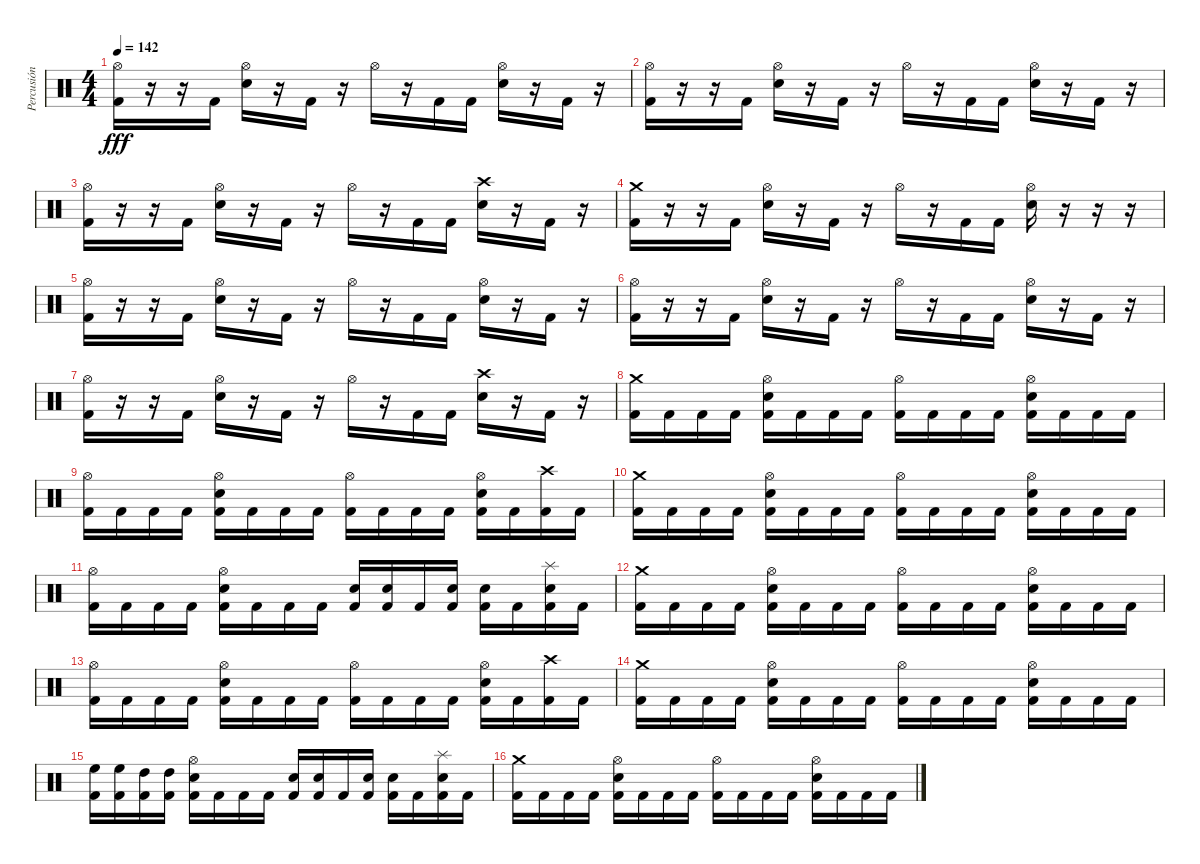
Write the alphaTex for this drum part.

\track ("Percusión" "Percusión") {instrument percussion}
\staff {score}
\articulation defaults
\ts (4 4)
\tempo 142
\clef neutral
\ks c
("Hi-Hat (open)" "Kick (hit) 2").16{dy fff} r.16 r.16 "Kick (hit) 2".16 ("Hi-Hat (open)" "Electric Snare (hit)").16 r.16 "Kick (hit) 2".16 r.16 "Hi-Hat (open)".16 r.16 "Kick (hit) 2".16 "Kick (hit) 2".16 ("Hi-Hat (open)" "Electric Snare (hit)").16 r.16 "Kick (hit) 2".16 r.16 |
("Hi-Hat (open)" "Kick (hit) 2").16 r.16 r.16 "Kick (hit) 2".16 ("Hi-Hat (open)" "Electric Snare (hit)").16 r.16 "Kick (hit) 2".16 r.16 "Hi-Hat (open)".16 r.16 "Kick (hit) 2".16 "Kick (hit) 2".16 ("Hi-Hat (open)" "Electric Snare (hit)").16 r.16 "Kick (hit) 2".16 r.16 |
("Hi-Hat (open)" "Kick (hit) 2").16 r.16 r.16 "Kick (hit) 2".16 ("Hi-Hat (open)" "Electric Snare (hit)").16 r.16 "Kick (hit) 2".16 r.16 "Hi-Hat (open)".16 r.16 "Kick (hit) 2".16 "Kick (hit) 2".16 ("Crash high (hit)" "Electric Snare (hit)").16 r.16 "Kick (hit) 2".16 r.16 |
("Crash medium (hit)" "Kick (hit) 2").16 r.16 r.16 "Kick (hit) 2".16 ("Hi-Hat (open)" "Electric Snare (hit)").16 r.16 "Kick (hit) 2".16 r.16 "Hi-Hat (open)".16 r.16 "Kick (hit) 2".16 "Kick (hit) 2".16 ("Hi-Hat (open)" "Electric Snare (hit)").16 r.16 r.16 r.16 |
("Hi-Hat (open)" "Kick (hit) 2").16 r.16 r.16 "Kick (hit) 2".16 ("Hi-Hat (open)" "Electric Snare (hit)").16 r.16 "Kick (hit) 2".16 r.16 "Hi-Hat (open)".16 r.16 "Kick (hit) 2".16 "Kick (hit) 2".16 ("Hi-Hat (open)" "Electric Snare (hit)").16 r.16 "Kick (hit) 2".16 r.16 |
("Hi-Hat (open)" "Kick (hit) 2").16 r.16 r.16 "Kick (hit) 2".16 ("Hi-Hat (open)" "Electric Snare (hit)").16 r.16 "Kick (hit) 2".16 r.16 "Hi-Hat (open)".16 r.16 "Kick (hit) 2".16 "Kick (hit) 2".16 ("Hi-Hat (open)" "Electric Snare (hit)").16 r.16 "Kick (hit) 2".16 r.16 |
("Hi-Hat (open)" "Kick (hit) 2").16 r.16 r.16 "Kick (hit) 2".16 ("Hi-Hat (open)" "Electric Snare (hit)").16 r.16 "Kick (hit) 2".16 r.16 "Hi-Hat (open)".16 r.16 "Kick (hit) 2".16 "Kick (hit) 2".16 ("Crash high (hit)" "Electric Snare (hit)").16 r.16 "Kick (hit) 2".16 r.16 |
("Crash medium (hit)" "Kick (hit) 2").16 "Kick (hit) 2".16 "Kick (hit) 2".16 "Kick (hit) 2".16 ("Hi-Hat (open)" "Electric Snare (hit)" "Kick (hit) 2").16 "Kick (hit) 2".16 "Kick (hit) 2".16 "Kick (hit) 2".16 ("Hi-Hat (open)" "Kick (hit) 2").16 "Kick (hit) 2".16 "Kick (hit) 2".16 "Kick (hit) 2".16 ("Hi-Hat (open)" "Electric Snare (hit)" "Kick (hit) 2").16 "Kick (hit) 2".16 "Kick (hit) 2".16 "Kick (hit) 2".16 |
("Hi-Hat (open)" "Kick (hit) 2").16 "Kick (hit) 2".16 "Kick (hit) 2".16 "Kick (hit) 2".16 ("Hi-Hat (open)" "Electric Snare (hit)" "Kick (hit) 2").16 "Kick (hit) 2".16 "Kick (hit) 2".16 "Kick (hit) 2".16 ("Hi-Hat (open)" "Kick (hit) 2").16 "Kick (hit) 2".16 "Kick (hit) 2".16 "Kick (hit) 2".16 ("Hi-Hat (open)" "Electric Snare (hit)" "Kick (hit) 2").16 "Kick (hit) 2".16 ("Crash high (hit)" "Kick (hit) 2").16 "Kick (hit) 2".16 |
("Crash medium (hit)" "Kick (hit) 2").16 "Kick (hit) 2".16 "Kick (hit) 2".16 "Kick (hit) 2".16 ("Hi-Hat (open)" "Electric Snare (hit)" "Kick (hit) 2").16 "Kick (hit) 2".16 "Kick (hit) 2".16 "Kick (hit) 2".16 ("Hi-Hat (open)" "Kick (hit) 2").16 "Kick (hit) 2".16 "Kick (hit) 2".16 "Kick (hit) 2".16 ("Hi-Hat (open)" "Electric Snare (hit)" "Kick (hit) 2").16 "Kick (hit) 2".16 "Kick (hit) 2".16 "Kick (hit) 2".16 |
("Hi-Hat (open)" "Kick (hit) 2").16 "Kick (hit) 2".16 "Kick (hit) 2".16 "Kick (hit) 2".16 ("Hi-Hat (open)" "Electric Snare (hit)" "Kick (hit) 2").16 "Kick (hit) 2".16 "Kick (hit) 2".16 "Kick (hit) 2".16 ("Electric Snare (hit)" "Kick (hit) 2").16 ("Electric Snare (hit)" "Kick (hit) 2").16 "Kick (hit) 2".16 ("Electric Snare (hit)" "Kick (hit) 2").16 ("Electric Snare (hit)" "Kick (hit) 2").16 "Kick (hit) 2".16 ("Splash (hit)" "Electric Snare (hit)" "Kick (hit) 2").16 "Kick (hit) 2".16 |
("Crash medium (hit)" "Kick (hit) 2").16 "Kick (hit) 2".16 "Kick (hit) 2".16 "Kick (hit) 2".16 ("Hi-Hat (open)" "Electric Snare (hit)" "Kick (hit) 2").16 "Kick (hit) 2".16 "Kick (hit) 2".16 "Kick (hit) 2".16 ("Hi-Hat (open)" "Kick (hit) 2").16 "Kick (hit) 2".16 "Kick (hit) 2".16 "Kick (hit) 2".16 ("Hi-Hat (open)" "Electric Snare (hit)" "Kick (hit) 2").16 "Kick (hit) 2".16 "Kick (hit) 2".16 "Kick (hit) 2".16 |
("Hi-Hat (open)" "Kick (hit) 2").16 "Kick (hit) 2".16 "Kick (hit) 2".16 "Kick (hit) 2".16 ("Hi-Hat (open)" "Electric Snare (hit)" "Kick (hit) 2").16 "Kick (hit) 2".16 "Kick (hit) 2".16 "Kick (hit) 2".16 ("Hi-Hat (open)" "Kick (hit) 2").16 "Kick (hit) 2".16 "Kick (hit) 2".16 "Kick (hit) 2".16 ("Hi-Hat (open)" "Electric Snare (hit)" "Kick (hit) 2").16 "Kick (hit) 2".16 ("Crash high (hit)" "Kick (hit) 2").16 "Kick (hit) 2".16 |
("Crash medium (hit)" "Kick (hit) 2").16 "Kick (hit) 2".16 "Kick (hit) 2".16 "Kick (hit) 2".16 ("Hi-Hat (open)" "Electric Snare (hit)" "Kick (hit) 2").16 "Kick (hit) 2".16 "Kick (hit) 2".16 "Kick (hit) 2".16 ("Hi-Hat (open)" "Kick (hit) 2").16 "Kick (hit) 2".16 "Kick (hit) 2".16 "Kick (hit) 2".16 ("Hi-Hat (open)" "Electric Snare (hit)" "Kick (hit) 2").16 "Kick (hit) 2".16 "Kick (hit) 2".16 "Kick (hit) 2".16 |
("High Floor Tom (hit)" "Kick (hit) 2").16 ("High Floor Tom (hit)" "Kick (hit) 2").16 ("High Tom (hit)" "Kick (hit) 2").16 ("High Tom (hit)" "Kick (hit) 2").16 ("Hi-Hat (open)" "Electric Snare (hit)" "Kick (hit) 2").16 "Kick (hit) 2".16 "Kick (hit) 2".16 "Kick (hit) 2".16 ("Electric Snare (hit)" "Kick (hit) 2").16 ("Electric Snare (hit)" "Kick (hit) 2").16 "Kick (hit) 2".16 ("Electric Snare (hit)" "Kick (hit) 2").16 ("Electric Snare (hit)" "Kick (hit) 2").16 "Kick (hit) 2".16 ("Splash (hit)" "Electric Snare (hit)" "Kick (hit) 2").16 "Kick (hit) 2".16 |
("Crash medium (hit)" "Kick (hit) 2").16 "Kick (hit) 2".16 "Kick (hit) 2".16 "Kick (hit) 2".16 ("Hi-Hat (open)" "Electric Snare (hit)" "Kick (hit) 2").16 "Kick (hit) 2".16 "Kick (hit) 2".16 "Kick (hit) 2".16 ("Hi-Hat (open)" "Kick (hit) 2").16 "Kick (hit) 2".16 "Kick (hit) 2".16 "Kick (hit) 2".16 ("Hi-Hat (open)" "Electric Snare (hit)" "Kick (hit) 2").16 "Kick (hit) 2".16 "Kick (hit) 2".16 "Kick (hit) 2".16
